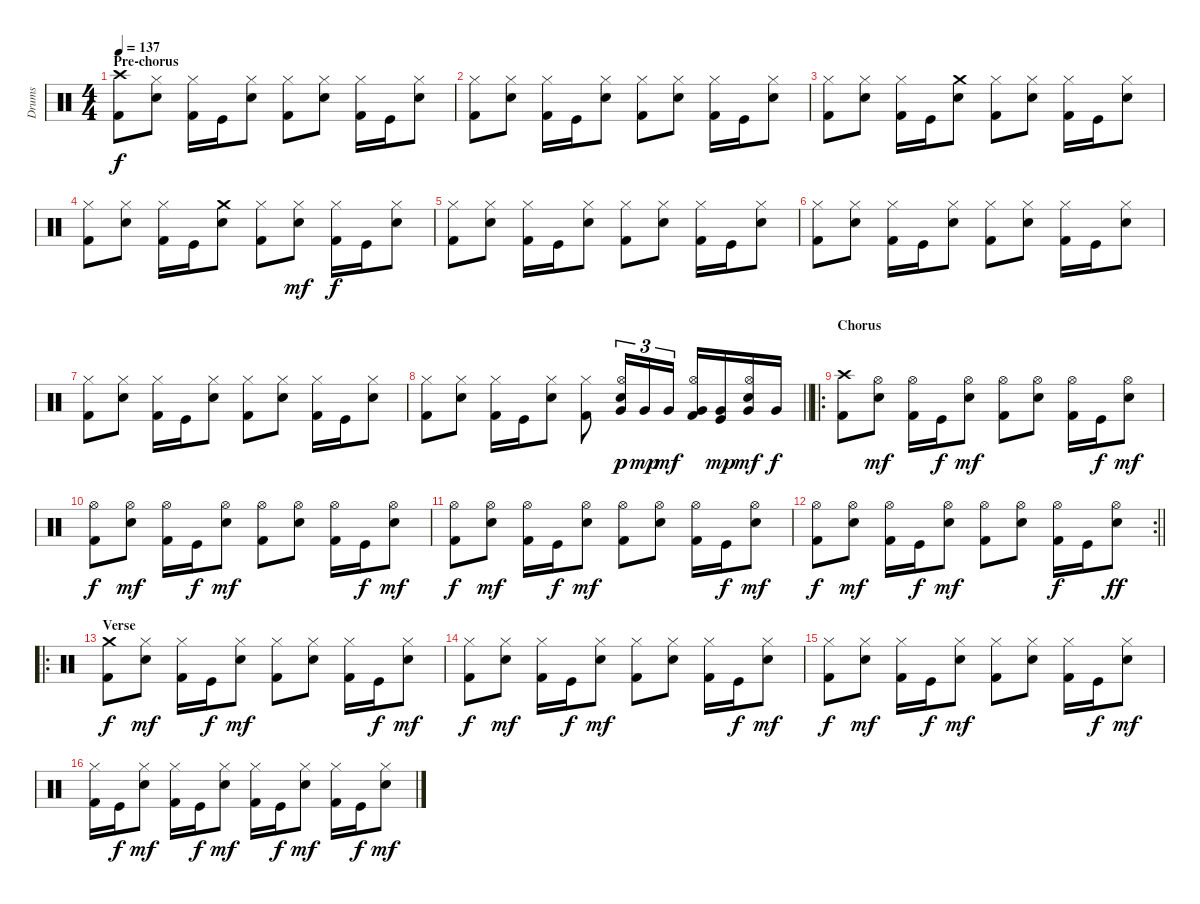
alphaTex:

\track ("Drums" "Drums") {instrument percussion}
\staff {score}
\articulation defaults
\ts (4 4)
\section ("" "Pre-chorus")
\tempo 137
\clef neutral
\ks c
("Crash high (hit)" "Kick (hit) 2").8{dy f} ("Hi-Hat (closed)" "Snare (hit) 2").8 ("Hi-Hat (closed)" "Kick (hit) 2").16 "Kick (hit)".16 ("Hi-Hat (closed)" "Snare (hit) 2").8 ("Hi-Hat (closed)" "Kick (hit) 2").8 ("Hi-Hat (closed)" "Snare (hit) 2").8 ("Hi-Hat (closed)" "Kick (hit) 2").16 "Kick (hit)".16 ("Hi-Hat (closed)" "Snare (hit) 2").8 |
("Hi-Hat (closed)" "Kick (hit) 2").8 ("Hi-Hat (closed)" "Snare (hit) 2").8 ("Hi-Hat (closed)" "Kick (hit) 2").16 "Kick (hit)".16 ("Hi-Hat (closed)" "Snare (hit) 2").8 ("Hi-Hat (closed)" "Kick (hit) 2").8 ("Hi-Hat (closed)" "Snare (hit) 2").8 ("Hi-Hat (closed)" "Kick (hit) 2").16 "Kick (hit)".16 ("Hi-Hat (closed)" "Snare (hit) 2").8 |
("Hi-Hat (closed)" "Kick (hit) 2").8 ("Hi-Hat (closed)" "Snare (hit) 2").8 ("Hi-Hat (closed)" "Kick (hit) 2").16 "Kick (hit)".16 ("Crash medium (hit)" "Snare (hit) 2").8 ("Hi-Hat (closed)" "Kick (hit) 2").8 ("Hi-Hat (closed)" "Snare (hit) 2").8 ("Hi-Hat (closed)" "Kick (hit) 2").16 "Kick (hit)".16 ("Hi-Hat (closed)" "Snare (hit) 2").8 |
("Hi-Hat (closed)" "Kick (hit) 2").8 ("Hi-Hat (closed)" "Snare (hit) 2").8 ("Hi-Hat (closed)" "Kick (hit) 2").16 "Kick (hit)".16 ("Crash medium (hit)" "Snare (hit) 2").8 ("Hi-Hat (closed)" "Kick (hit) 2").8 ("Hi-Hat (closed)" "Snare (hit) 2").8{dy mf} ("Hi-Hat (closed)" "Kick (hit) 2").16{dy f} "Kick (hit)".16 ("Hi-Hat (closed)" "Snare (hit) 2").8 |
("Hi-Hat (closed)" "Kick (hit) 2").8 ("Hi-Hat (closed)" "Snare (hit) 2").8 ("Hi-Hat (closed)" "Kick (hit) 2").16 "Kick (hit)".16 ("Hi-Hat (closed)" "Snare (hit) 2").8 ("Hi-Hat (closed)" "Kick (hit) 2").8 ("Hi-Hat (closed)" "Snare (hit) 2").8 ("Hi-Hat (closed)" "Kick (hit) 2").16 "Kick (hit)".16 ("Hi-Hat (closed)" "Snare (hit) 2").8 |
("Hi-Hat (closed)" "Kick (hit) 2").8 ("Hi-Hat (closed)" "Snare (hit) 2").8 ("Hi-Hat (closed)" "Kick (hit) 2").16 "Kick (hit)".16 ("Hi-Hat (closed)" "Snare (hit) 2").8 ("Hi-Hat (closed)" "Kick (hit) 2").8 ("Hi-Hat (closed)" "Snare (hit) 2").8 ("Hi-Hat (closed)" "Kick (hit) 2").16 "Kick (hit)".16 ("Hi-Hat (closed)" "Snare (hit) 2").8 |
("Hi-Hat (closed)" "Kick (hit) 2").8 ("Hi-Hat (closed)" "Snare (hit) 2").8 ("Hi-Hat (closed)" "Kick (hit) 2").16 "Kick (hit)".16 ("Hi-Hat (closed)" "Snare (hit) 2").8 ("Hi-Hat (closed)" "Kick (hit) 2").8 ("Hi-Hat (closed)" "Snare (hit) 2").8 ("Hi-Hat (closed)" "Kick (hit) 2").16 "Kick (hit)".16 ("Hi-Hat (closed)" "Snare (hit) 2").8 |
\barLineRight lightlight
("Hi-Hat (closed)" "Kick (hit) 2").8 ("Hi-Hat (closed)" "Snare (hit) 2").8 ("Hi-Hat (closed)" "Kick (hit) 2").16 "Kick (hit)".16 ("Hi-Hat (closed)" "Snare (hit) 2").8 ("Hi-Hat (closed)" "Kick (hit) 2").8 ("Hi-Hat (open)" "Snare (hit) 2" "Very Low Tom (hit)").16{tu (3 2) dy p} "Very Low Tom (hit)".16{tu (3 2) dy mp} "Very Low Tom (hit)".16{tu (3 2) dy mf} ("Hi-Hat (open)" "Very Low Tom (hit)" "Kick (hit) 2").16 ("Very Low Tom (hit)" "Kick (hit)").16{dy mp} ("Hi-Hat (open)" "Snare (hit) 2" "Very Low Tom (hit)").16{dy mf} "Very Low Tom (hit)".16{dy f} |
\ro
\section ("" "Chorus")
("Crash high (hit)" "Kick (hit) 2").8 ("Hi-Hat (open)" "Snare (hit) 2").8{dy mf} ("Hi-Hat (open)" "Kick (hit) 2").16 "Kick (hit)".16{dy f} ("Hi-Hat (open)" "Snare (hit) 2").8{dy mf} ("Hi-Hat (open)" "Kick (hit) 2").8 ("Hi-Hat (open)" "Snare (hit) 2").8 ("Hi-Hat (open)" "Kick (hit) 2").16 "Kick (hit)".16{dy f} ("Hi-Hat (open)" "Snare (hit) 2").8{dy mf} |
("Hi-Hat (open)" "Kick (hit) 2").8{dy f} ("Hi-Hat (open)" "Snare (hit) 2").8{dy mf} ("Hi-Hat (open)" "Kick (hit) 2").16 "Kick (hit)".16{dy f} ("Hi-Hat (open)" "Snare (hit) 2").8{dy mf} ("Hi-Hat (open)" "Kick (hit) 2").8 ("Hi-Hat (open)" "Snare (hit) 2").8 ("Hi-Hat (open)" "Kick (hit) 2").16 "Kick (hit)".16{dy f} ("Hi-Hat (open)" "Snare (hit) 2").8{dy mf} |
("Hi-Hat (open)" "Kick (hit) 2").8{dy f} ("Hi-Hat (open)" "Snare (hit) 2").8{dy mf} ("Hi-Hat (open)" "Kick (hit) 2").16 "Kick (hit)".16{dy f} ("Hi-Hat (open)" "Snare (hit) 2").8{dy mf} ("Hi-Hat (open)" "Kick (hit) 2").8 ("Hi-Hat (open)" "Snare (hit) 2").8 ("Hi-Hat (open)" "Kick (hit) 2").16 "Kick (hit)".16{dy f} ("Hi-Hat (open)" "Snare (hit) 2").8{dy mf} |
\rc 2
\barLineRight lightlight
("Hi-Hat (open)" "Kick (hit) 2").8{dy f} ("Hi-Hat (open)" "Snare (hit) 2").8{dy mf} ("Hi-Hat (open)" "Kick (hit) 2").16 "Kick (hit)".16{dy f} ("Hi-Hat (open)" "Snare (hit) 2").8{dy mf} ("Hi-Hat (open)" "Kick (hit) 2").8 ("Hi-Hat (open)" "Snare (hit) 2").8 ("Hi-Hat (open)" "Kick (hit) 2").16{dy f} "Kick (hit)".16 ("Hi-Hat (open)" "Snare (hit) 2").8{dy ff} |
\ro
\section ("" "Verse")
("Crash medium (hit)" "Kick (hit) 2").8{dy f} ("Hi-Hat (closed)" "Snare (hit) 2").8{dy mf} ("Hi-Hat (closed)" "Kick (hit) 2").16 "Kick (hit)".16{dy f} ("Hi-Hat (closed)" "Snare (hit) 2").8{dy mf} ("Hi-Hat (closed)" "Kick (hit) 2").8 ("Hi-Hat (closed)" "Snare (hit) 2").8 ("Hi-Hat (closed)" "Kick (hit) 2").16 "Kick (hit)".16{dy f} ("Hi-Hat (closed)" "Snare (hit) 2").8{dy mf} |
("Hi-Hat (closed)" "Kick (hit) 2").8{dy f} ("Hi-Hat (closed)" "Snare (hit) 2").8{dy mf} ("Hi-Hat (closed)" "Kick (hit) 2").16 "Kick (hit)".16{dy f} ("Hi-Hat (closed)" "Snare (hit) 2").8{dy mf} ("Hi-Hat (closed)" "Kick (hit) 2").8 ("Hi-Hat (closed)" "Snare (hit) 2").8 ("Hi-Hat (closed)" "Kick (hit) 2").16 "Kick (hit)".16{dy f} ("Hi-Hat (closed)" "Snare (hit) 2").8{dy mf} |
("Hi-Hat (closed)" "Kick (hit) 2").8{dy f} ("Hi-Hat (closed)" "Snare (hit) 2").8{dy mf} ("Hi-Hat (closed)" "Kick (hit) 2").16 "Kick (hit)".16{dy f} ("Hi-Hat (closed)" "Snare (hit) 2").8{dy mf} ("Hi-Hat (closed)" "Kick (hit) 2").8 ("Hi-Hat (closed)" "Snare (hit) 2").8 ("Hi-Hat (closed)" "Kick (hit) 2").16 "Kick (hit)".16{dy f} ("Hi-Hat (closed)" "Snare (hit) 2").8{dy mf} |
("Hi-Hat (closed)" "Kick (hit) 2").16 "Kick (hit)".16{dy f} ("Hi-Hat (closed)" "Snare (hit) 2").8{dy mf} ("Hi-Hat (closed)" "Kick (hit) 2").16 "Kick (hit)".16{dy f} ("Hi-Hat (closed)" "Snare (hit) 2").8{dy mf} ("Hi-Hat (closed)" "Kick (hit) 2").16 "Kick (hit)".16{dy f} ("Hi-Hat (closed)" "Snare (hit) 2").8{dy mf} ("Hi-Hat (closed)" "Kick (hit) 2").16 "Kick (hit)".16{dy f} ("Hi-Hat (closed)" "Snare (hit) 2").8{dy mf}
